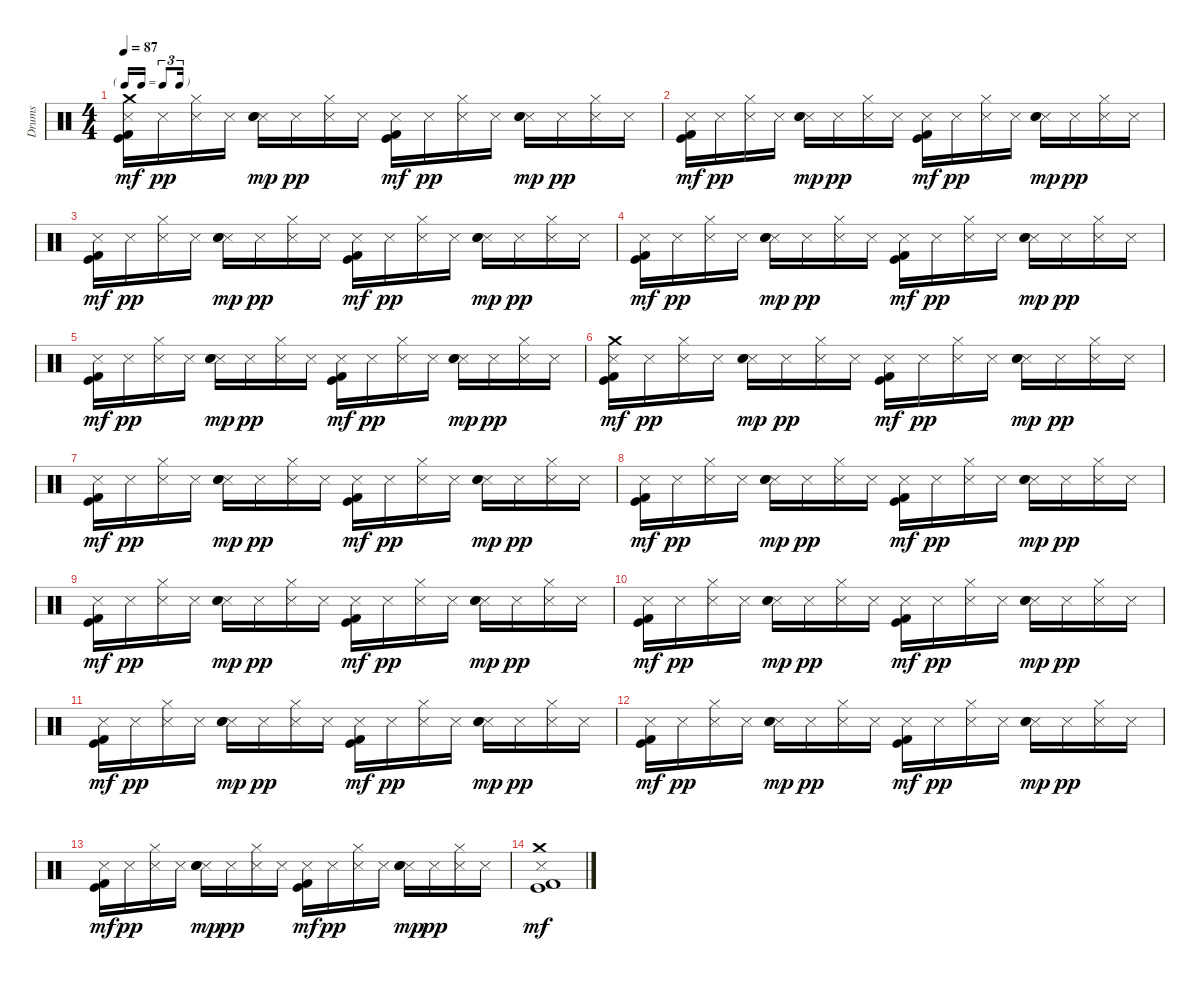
\track ("Drums" "Drums") {instrument percussion}
\staff {score}
\articulation defaults
\ts (4 4)
\tf triplet16th
\tempo 87
\clef neutral
\ks c
("Metronome (hit)" "Crash medium (hit)" "Kick (hit)" "Kick (hit) 2").16{dy mf} "Metronome (hit)".16{dy pp} ("Hi-Hat (closed)" "Metronome (hit)").16 "Metronome (hit)".16 ("Metronome (hit)" "Electric Snare (hit)" "Snare (hit) 2").16{dy mp} "Metronome (hit)".16{dy pp} ("Hi-Hat (closed)" "Metronome (hit)").16 "Metronome (hit)".16 ("Metronome (hit)" "Kick (hit)" "Kick (hit) 2").16{dy mf} "Metronome (hit)".16{dy pp} ("Hi-Hat (closed)" "Metronome (hit)").16 "Metronome (hit)".16 ("Metronome (hit)" "Electric Snare (hit)" "Snare (hit) 2").16{dy mp} "Metronome (hit)".16{dy pp} ("Hi-Hat (closed)" "Metronome (hit)").16 "Metronome (hit)".16 |
("Metronome (hit)" "Kick (hit)" "Kick (hit) 2").16{dy mf} "Metronome (hit)".16{dy pp} ("Hi-Hat (closed)" "Metronome (hit)").16 "Metronome (hit)".16 ("Metronome (hit)" "Electric Snare (hit)" "Snare (hit) 2").16{dy mp} "Metronome (hit)".16{dy pp} ("Hi-Hat (closed)" "Metronome (hit)").16 "Metronome (hit)".16 ("Metronome (hit)" "Kick (hit)" "Kick (hit) 2").16{dy mf} "Metronome (hit)".16{dy pp} ("Hi-Hat (closed)" "Metronome (hit)").16 "Metronome (hit)".16 ("Metronome (hit)" "Electric Snare (hit)" "Snare (hit) 2").16{dy mp} "Metronome (hit)".16{dy pp} ("Hi-Hat (closed)" "Metronome (hit)").16 "Metronome (hit)".16 |
("Metronome (hit)" "Kick (hit)" "Kick (hit) 2").16{dy mf} "Metronome (hit)".16{dy pp} ("Hi-Hat (closed)" "Metronome (hit)").16 "Metronome (hit)".16 ("Metronome (hit)" "Electric Snare (hit)" "Snare (hit) 2").16{dy mp} "Metronome (hit)".16{dy pp} ("Hi-Hat (closed)" "Metronome (hit)").16 "Metronome (hit)".16 ("Metronome (hit)" "Kick (hit)" "Kick (hit) 2").16{dy mf} "Metronome (hit)".16{dy pp} ("Hi-Hat (closed)" "Metronome (hit)").16 "Metronome (hit)".16 ("Metronome (hit)" "Electric Snare (hit)" "Snare (hit) 2").16{dy mp} "Metronome (hit)".16{dy pp} ("Hi-Hat (closed)" "Metronome (hit)").16 "Metronome (hit)".16 |
("Metronome (hit)" "Kick (hit)" "Kick (hit) 2").16{dy mf} "Metronome (hit)".16{dy pp} ("Hi-Hat (closed)" "Metronome (hit)").16 "Metronome (hit)".16 ("Metronome (hit)" "Electric Snare (hit)" "Snare (hit) 2").16{dy mp} "Metronome (hit)".16{dy pp} ("Hi-Hat (closed)" "Metronome (hit)").16 "Metronome (hit)".16 ("Metronome (hit)" "Kick (hit)" "Kick (hit) 2").16{dy mf} "Metronome (hit)".16{dy pp} ("Hi-Hat (closed)" "Metronome (hit)").16 "Metronome (hit)".16 ("Metronome (hit)" "Electric Snare (hit)" "Snare (hit) 2").16{dy mp} "Metronome (hit)".16{dy pp} ("Hi-Hat (closed)" "Metronome (hit)").16 "Metronome (hit)".16 |
("Metronome (hit)" "Kick (hit)" "Kick (hit) 2").16{dy mf} "Metronome (hit)".16{dy pp} ("Hi-Hat (closed)" "Metronome (hit)").16 "Metronome (hit)".16 ("Metronome (hit)" "Electric Snare (hit)" "Snare (hit) 2").16{dy mp} "Metronome (hit)".16{dy pp} ("Hi-Hat (closed)" "Metronome (hit)").16 "Metronome (hit)".16 ("Metronome (hit)" "Kick (hit)" "Kick (hit) 2").16{dy mf} "Metronome (hit)".16{dy pp} ("Hi-Hat (closed)" "Metronome (hit)").16 "Metronome (hit)".16 ("Metronome (hit)" "Electric Snare (hit)" "Snare (hit) 2").16{dy mp} "Metronome (hit)".16{dy pp} ("Hi-Hat (closed)" "Metronome (hit)").16 "Metronome (hit)".16 |
("Metronome (hit)" "Crash medium (hit)" "Kick (hit)" "Kick (hit) 2").16{dy mf} "Metronome (hit)".16{dy pp} ("Hi-Hat (closed)" "Metronome (hit)").16 "Metronome (hit)".16 ("Metronome (hit)" "Electric Snare (hit)" "Snare (hit) 2").16{dy mp} "Metronome (hit)".16{dy pp} ("Hi-Hat (closed)" "Metronome (hit)").16 "Metronome (hit)".16 ("Metronome (hit)" "Kick (hit)" "Kick (hit) 2").16{dy mf} "Metronome (hit)".16{dy pp} ("Hi-Hat (closed)" "Metronome (hit)").16 "Metronome (hit)".16 ("Metronome (hit)" "Electric Snare (hit)" "Snare (hit) 2").16{dy mp} "Metronome (hit)".16{dy pp} ("Hi-Hat (closed)" "Metronome (hit)").16 "Metronome (hit)".16 |
("Metronome (hit)" "Kick (hit)" "Kick (hit) 2").16{dy mf} "Metronome (hit)".16{dy pp} ("Hi-Hat (closed)" "Metronome (hit)").16 "Metronome (hit)".16 ("Metronome (hit)" "Electric Snare (hit)" "Snare (hit) 2").16{dy mp} "Metronome (hit)".16{dy pp} ("Hi-Hat (closed)" "Metronome (hit)").16 "Metronome (hit)".16 ("Metronome (hit)" "Kick (hit)" "Kick (hit) 2").16{dy mf} "Metronome (hit)".16{dy pp} ("Hi-Hat (closed)" "Metronome (hit)").16 "Metronome (hit)".16 ("Metronome (hit)" "Electric Snare (hit)" "Snare (hit) 2").16{dy mp} "Metronome (hit)".16{dy pp} ("Hi-Hat (closed)" "Metronome (hit)").16 "Metronome (hit)".16 |
("Metronome (hit)" "Kick (hit)" "Kick (hit) 2").16{dy mf} "Metronome (hit)".16{dy pp} ("Hi-Hat (closed)" "Metronome (hit)").16 "Metronome (hit)".16 ("Metronome (hit)" "Electric Snare (hit)" "Snare (hit) 2").16{dy mp} "Metronome (hit)".16{dy pp} ("Hi-Hat (closed)" "Metronome (hit)").16 "Metronome (hit)".16 ("Metronome (hit)" "Kick (hit)" "Kick (hit) 2").16{dy mf} "Metronome (hit)".16{dy pp} ("Hi-Hat (closed)" "Metronome (hit)").16 "Metronome (hit)".16 ("Metronome (hit)" "Electric Snare (hit)" "Snare (hit) 2").16{dy mp} "Metronome (hit)".16{dy pp} ("Hi-Hat (closed)" "Metronome (hit)").16 "Metronome (hit)".16 |
("Metronome (hit)" "Kick (hit)" "Kick (hit) 2").16{dy mf} "Metronome (hit)".16{dy pp} ("Hi-Hat (closed)" "Metronome (hit)").16 "Metronome (hit)".16 ("Metronome (hit)" "Electric Snare (hit)" "Snare (hit) 2").16{dy mp} "Metronome (hit)".16{dy pp} ("Hi-Hat (closed)" "Metronome (hit)").16 "Metronome (hit)".16 ("Metronome (hit)" "Kick (hit)" "Kick (hit) 2").16{dy mf} "Metronome (hit)".16{dy pp} ("Hi-Hat (closed)" "Metronome (hit)").16 "Metronome (hit)".16 ("Metronome (hit)" "Electric Snare (hit)" "Snare (hit) 2").16{dy mp} "Metronome (hit)".16{dy pp} ("Hi-Hat (closed)" "Metronome (hit)").16 "Metronome (hit)".16 |
("Metronome (hit)" "Kick (hit)" "Kick (hit) 2").16{dy mf} "Metronome (hit)".16{dy pp} ("Hi-Hat (closed)" "Metronome (hit)").16 "Metronome (hit)".16 ("Metronome (hit)" "Electric Snare (hit)" "Snare (hit) 2").16{dy mp} "Metronome (hit)".16{dy pp} ("Hi-Hat (closed)" "Metronome (hit)").16 "Metronome (hit)".16 ("Metronome (hit)" "Kick (hit)" "Kick (hit) 2").16{dy mf} "Metronome (hit)".16{dy pp} ("Hi-Hat (closed)" "Metronome (hit)").16 "Metronome (hit)".16 ("Metronome (hit)" "Electric Snare (hit)" "Snare (hit) 2").16{dy mp} "Metronome (hit)".16{dy pp} ("Hi-Hat (closed)" "Metronome (hit)").16 "Metronome (hit)".16 |
("Metronome (hit)" "Kick (hit)" "Kick (hit) 2").16{dy mf} "Metronome (hit)".16{dy pp} ("Hi-Hat (closed)" "Metronome (hit)").16 "Metronome (hit)".16 ("Metronome (hit)" "Electric Snare (hit)" "Snare (hit) 2").16{dy mp} "Metronome (hit)".16{dy pp} ("Hi-Hat (closed)" "Metronome (hit)").16 "Metronome (hit)".16 ("Metronome (hit)" "Kick (hit)" "Kick (hit) 2").16{dy mf} "Metronome (hit)".16{dy pp} ("Hi-Hat (closed)" "Metronome (hit)").16 "Metronome (hit)".16 ("Metronome (hit)" "Electric Snare (hit)" "Snare (hit) 2").16{dy mp} "Metronome (hit)".16{dy pp} ("Hi-Hat (closed)" "Metronome (hit)").16 "Metronome (hit)".16 |
("Metronome (hit)" "Kick (hit)" "Kick (hit) 2").16{dy mf} "Metronome (hit)".16{dy pp} ("Hi-Hat (closed)" "Metronome (hit)").16 "Metronome (hit)".16 ("Metronome (hit)" "Electric Snare (hit)" "Snare (hit) 2").16{dy mp} "Metronome (hit)".16{dy pp} ("Hi-Hat (closed)" "Metronome (hit)").16 "Metronome (hit)".16 ("Metronome (hit)" "Kick (hit)" "Kick (hit) 2").16{dy mf} "Metronome (hit)".16{dy pp} ("Hi-Hat (closed)" "Metronome (hit)").16 "Metronome (hit)".16 ("Metronome (hit)" "Electric Snare (hit)" "Snare (hit) 2").16{dy mp} "Metronome (hit)".16{dy pp} ("Hi-Hat (closed)" "Metronome (hit)").16 "Metronome (hit)".16 |
("Metronome (hit)" "Kick (hit)" "Kick (hit) 2").16{dy mf} "Metronome (hit)".16{dy pp} ("Hi-Hat (closed)" "Metronome (hit)").16 "Metronome (hit)".16 ("Metronome (hit)" "Electric Snare (hit)" "Snare (hit) 2").16{dy mp} "Metronome (hit)".16{dy pp} ("Hi-Hat (closed)" "Metronome (hit)").16 "Metronome (hit)".16 ("Metronome (hit)" "Kick (hit)" "Kick (hit) 2").16{dy mf} "Metronome (hit)".16{dy pp} ("Hi-Hat (closed)" "Metronome (hit)").16 "Metronome (hit)".16 ("Metronome (hit)" "Electric Snare (hit)" "Snare (hit) 2").16{dy mp} "Metronome (hit)".16{dy pp} ("Hi-Hat (closed)" "Metronome (hit)").16 "Metronome (hit)".16 |
("Crash medium (hit)" "Metronome (hit)" "Kick (hit)" "Kick (hit) 2").1{dy mf}
